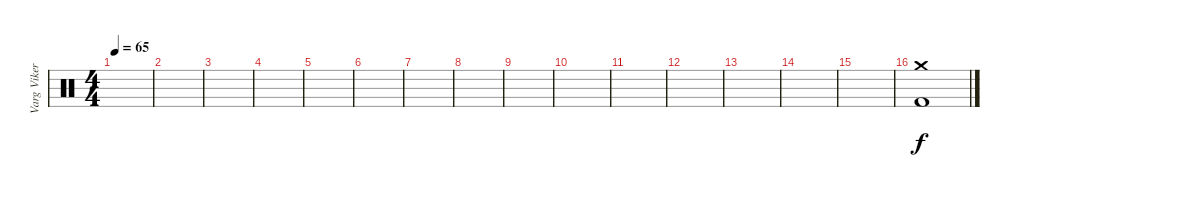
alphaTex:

\track ("Varg Vikernes" "Varg Viker") {instrument percussion}
\staff {score}
\articulation defaults
\ts (4 4)
\tempo 65
\clef neutral
\ks c
|
|
|
|
|
|
|
|
|
|
|
|
|
|
|
("Crash medium (hit)" "Kick (hit) 2").1
